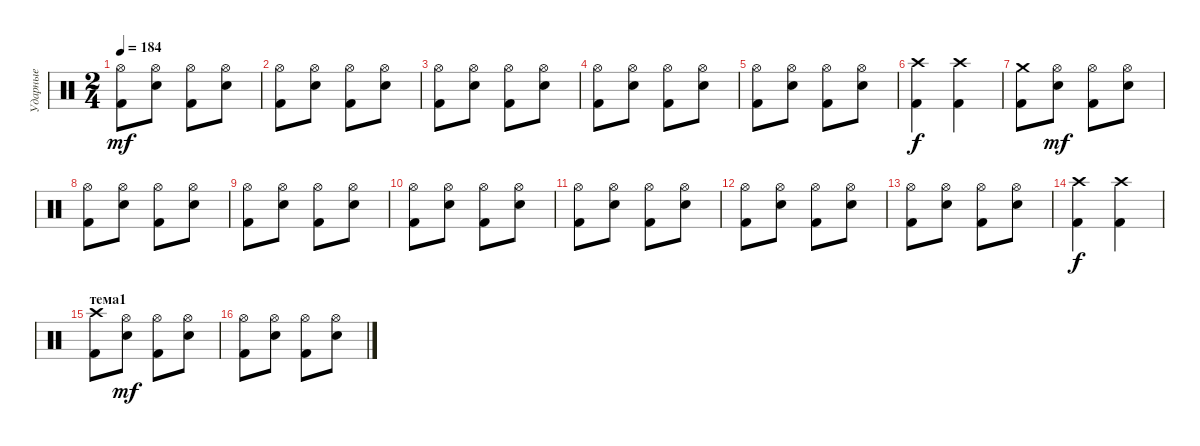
\track ("Ударные" "Ударные") {instrument percussion}
\staff {score}
\articulation defaults
\ts (2 4)
\tempo 184
\clef neutral
\ks c
("Kick (hit) 2" "Hi-Hat (open)").8{dy mf} ("Snare (hit) 2" "Hi-Hat (open)").8 ("Kick (hit) 2" "Hi-Hat (open)").8 ("Snare (hit) 2" "Hi-Hat (open)").8 |
("Kick (hit) 2" "Hi-Hat (open)").8 ("Snare (hit) 2" "Hi-Hat (open)").8 ("Kick (hit) 2" "Hi-Hat (open)").8 ("Snare (hit) 2" "Hi-Hat (open)").8 |
("Kick (hit) 2" "Hi-Hat (open)").8 ("Snare (hit) 2" "Hi-Hat (open)").8 ("Kick (hit) 2" "Hi-Hat (open)").8 ("Snare (hit) 2" "Hi-Hat (open)").8 |
("Kick (hit) 2" "Hi-Hat (open)").8 ("Snare (hit) 2" "Hi-Hat (open)").8 ("Kick (hit) 2" "Hi-Hat (open)").8 ("Snare (hit) 2" "Hi-Hat (open)").8 |
("Kick (hit) 2" "Hi-Hat (open)").8 ("Snare (hit) 2" "Hi-Hat (open)").8 ("Kick (hit) 2" "Hi-Hat (open)").8 ("Snare (hit) 2" "Hi-Hat (open)").8 |
("Kick (hit) 2" "Crash high (hit)").4{dy f} ("Kick (hit) 2" "Crash high (hit)").4 |
("Kick (hit) 2" "Crash medium (hit)").8 ("Snare (hit) 2" "Hi-Hat (open)").8{dy mf} ("Kick (hit) 2" "Hi-Hat (open)").8 ("Snare (hit) 2" "Hi-Hat (open)").8 |
("Kick (hit) 2" "Hi-Hat (open)").8 ("Snare (hit) 2" "Hi-Hat (open)").8 ("Kick (hit) 2" "Hi-Hat (open)").8 ("Snare (hit) 2" "Hi-Hat (open)").8 |
("Kick (hit) 2" "Hi-Hat (open)").8 ("Snare (hit) 2" "Hi-Hat (open)").8 ("Kick (hit) 2" "Hi-Hat (open)").8 ("Snare (hit) 2" "Hi-Hat (open)").8 |
("Kick (hit) 2" "Hi-Hat (open)").8 ("Snare (hit) 2" "Hi-Hat (open)").8 ("Kick (hit) 2" "Hi-Hat (open)").8 ("Snare (hit) 2" "Hi-Hat (open)").8 |
("Kick (hit) 2" "Hi-Hat (open)").8 ("Snare (hit) 2" "Hi-Hat (open)").8 ("Kick (hit) 2" "Hi-Hat (open)").8 ("Snare (hit) 2" "Hi-Hat (open)").8 |
("Kick (hit) 2" "Hi-Hat (open)").8 ("Snare (hit) 2" "Hi-Hat (open)").8 ("Kick (hit) 2" "Hi-Hat (open)").8 ("Snare (hit) 2" "Hi-Hat (open)").8 |
("Kick (hit) 2" "Hi-Hat (open)").8 ("Snare (hit) 2" "Hi-Hat (open)").8 ("Kick (hit) 2" "Hi-Hat (open)").8 ("Snare (hit) 2" "Hi-Hat (open)").8 |
("Kick (hit) 2" "Crash high (hit)").4{dy f} ("Kick (hit) 2" "Crash high (hit)").4 |
\section ("" "тема1")
("Kick (hit) 2" "Crash high (hit)").8 ("Snare (hit) 2" "Hi-Hat (open)").8{dy mf} ("Kick (hit) 2" "Hi-Hat (open)").8 ("Snare (hit) 2" "Hi-Hat (open)").8 |
("Kick (hit) 2" "Hi-Hat (open)").8 ("Snare (hit) 2" "Hi-Hat (open)").8 ("Kick (hit) 2" "Hi-Hat (open)").8 ("Snare (hit) 2" "Hi-Hat (open)").8
